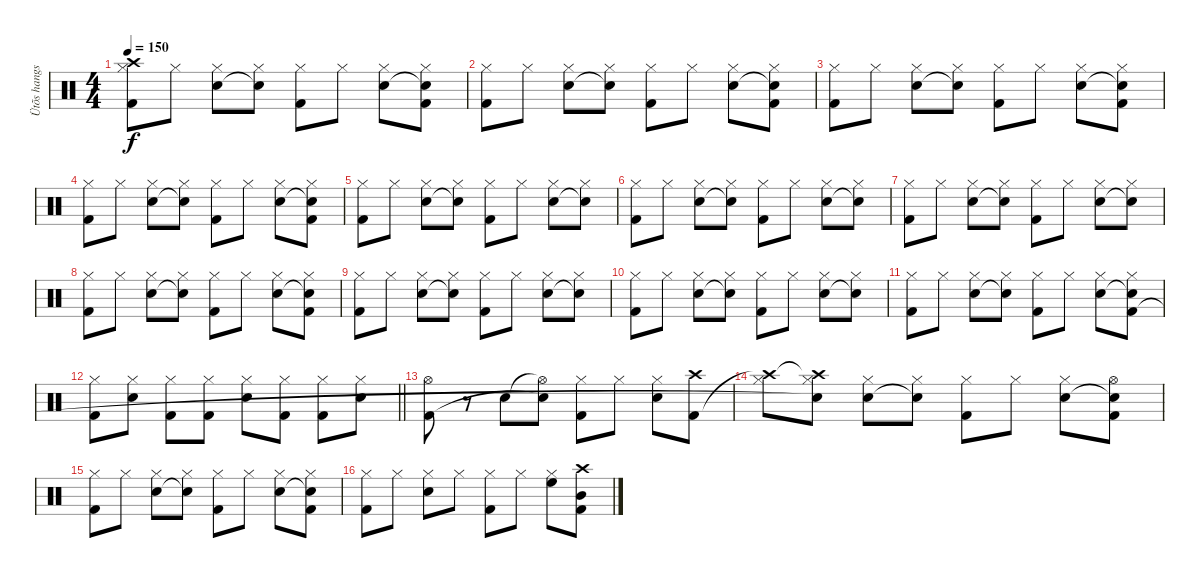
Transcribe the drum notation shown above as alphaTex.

\track ("Ütõs hangszer" "Ütõs hangs") {instrument percussion}
\staff {score}
\articulation defaults
\ts (4 4)
\tempo 150
\clef neutral
\ks c
("Hi-Hat (closed)" "Crash high (hit)"{t} "Kick (hit) 2").8{dy f} "Hi-Hat (closed)".8 ("Hi-Hat (closed)" "Snare (hit) 2").8 ("Hi-Hat (closed)" "Snare (hit) 2"{t}).8 ("Hi-Hat (closed)" "Kick (hit) 2").8 "Hi-Hat (closed)".8 ("Hi-Hat (closed)" "Snare (hit) 2").8 ("Hi-Hat (closed)" "Snare (hit) 2"{t} "Kick (hit) 2").8 |
("Hi-Hat (closed)" "Kick (hit) 2").8 "Hi-Hat (closed)".8 ("Hi-Hat (closed)" "Snare (hit) 2").8 ("Hi-Hat (closed)" "Snare (hit) 2"{t}).8 ("Hi-Hat (closed)" "Kick (hit) 2").8 "Hi-Hat (closed)".8 ("Hi-Hat (closed)" "Snare (hit) 2").8 ("Hi-Hat (closed)" "Snare (hit) 2"{t} "Kick (hit) 2").8 |
("Hi-Hat (closed)" "Kick (hit) 2").8 "Hi-Hat (closed)".8 ("Hi-Hat (closed)" "Snare (hit) 2").8 ("Hi-Hat (closed)" "Snare (hit) 2"{t}).8 ("Hi-Hat (closed)" "Kick (hit) 2").8 "Hi-Hat (closed)".8 ("Hi-Hat (closed)" "Snare (hit) 2").8 ("Hi-Hat (closed)" "Snare (hit) 2"{t} "Kick (hit) 2").8 |
("Hi-Hat (closed)" "Kick (hit) 2").8 "Hi-Hat (closed)".8 ("Hi-Hat (closed)" "Snare (hit) 2").8 ("Hi-Hat (closed)" "Snare (hit) 2"{t}).8 ("Hi-Hat (closed)" "Kick (hit) 2").8 "Hi-Hat (closed)".8 ("Hi-Hat (closed)" "Snare (hit) 2").8 ("Hi-Hat (closed)" "Snare (hit) 2"{t} "Kick (hit) 2").8 |
("Hi-Hat (closed)" "Kick (hit) 2").8 "Hi-Hat (closed)".8 ("Hi-Hat (closed)" "Snare (hit) 2").8 ("Hi-Hat (closed)" "Snare (hit) 2"{t}).8 ("Hi-Hat (closed)" "Kick (hit) 2").8 "Hi-Hat (closed)".8 ("Hi-Hat (closed)" "Snare (hit) 2").8 ("Hi-Hat (closed)" "Snare (hit) 2"{t}).8 |
("Hi-Hat (closed)" "Kick (hit) 2").8 "Hi-Hat (closed)".8 ("Hi-Hat (closed)" "Snare (hit) 2").8 ("Hi-Hat (closed)" "Snare (hit) 2"{t}).8 ("Hi-Hat (closed)" "Kick (hit) 2").8 "Hi-Hat (closed)".8 ("Hi-Hat (closed)" "Snare (hit) 2").8 ("Hi-Hat (closed)" "Snare (hit) 2"{t}).8 |
("Hi-Hat (closed)" "Kick (hit) 2").8 "Hi-Hat (closed)".8 ("Hi-Hat (closed)" "Snare (hit) 2").8 ("Hi-Hat (closed)" "Snare (hit) 2"{t}).8 ("Hi-Hat (closed)" "Kick (hit) 2").8 "Hi-Hat (closed)".8 ("Hi-Hat (closed)" "Snare (hit) 2").8 ("Hi-Hat (closed)" "Snare (hit) 2"{t}).8 |
("Hi-Hat (closed)" "Kick (hit) 2").8 "Hi-Hat (closed)".8 ("Hi-Hat (closed)" "Snare (hit) 2").8 ("Hi-Hat (closed)" "Snare (hit) 2"{t}).8 ("Hi-Hat (closed)" "Kick (hit) 2").8 "Hi-Hat (closed)".8 ("Hi-Hat (closed)" "Snare (hit) 2").8 ("Hi-Hat (closed)" "Snare (hit) 2"{t} "Kick (hit) 2").8 |
("Hi-Hat (closed)" "Kick (hit) 2").8 "Hi-Hat (closed)".8 ("Hi-Hat (closed)" "Snare (hit) 2").8 ("Hi-Hat (closed)" "Snare (hit) 2"{t}).8 ("Hi-Hat (closed)" "Kick (hit) 2").8 "Hi-Hat (closed)".8 ("Hi-Hat (closed)" "Snare (hit) 2").8 ("Hi-Hat (closed)" "Snare (hit) 2"{t}).8 |
("Hi-Hat (closed)" "Kick (hit) 2").8 "Hi-Hat (closed)".8 ("Hi-Hat (closed)" "Snare (hit) 2").8 ("Hi-Hat (closed)" "Snare (hit) 2"{t}).8 ("Hi-Hat (closed)" "Kick (hit) 2").8 "Hi-Hat (closed)".8 ("Hi-Hat (closed)" "Snare (hit) 2").8 ("Hi-Hat (closed)" "Snare (hit) 2"{t}).8 |
("Hi-Hat (closed)" "Kick (hit) 2").8 "Hi-Hat (closed)".8 ("Hi-Hat (closed)" "Snare (hit) 2").8 ("Hi-Hat (closed)" "Snare (hit) 2"{t}).8 ("Hi-Hat (closed)" "Kick (hit) 2").8 "Hi-Hat (closed)".8 ("Hi-Hat (closed)" "Snare (hit) 2").8 ("Hi-Hat (closed)" "Snare (hit) 2"{t} "Kick (hit) 2").8 |
\barLineRight lightlight
("Hi-Hat (closed)" "Kick (hit) 2").8 ("Hi-Hat (closed)" "Snare (hit) 2").8 ("Hi-Hat (closed)" "Kick (hit) 2").8 ("Hi-Hat (closed)" "Kick (hit) 2").8 ("Hi-Hat (closed)" "Snare (hit) 2").8 ("Hi-Hat (closed)" "Kick (hit) 2").8 ("Hi-Hat (closed)" "Kick (hit) 2").8 ("Hi-Hat (closed)" "Snare (hit) 2").8 |
("Hi-Hat (open)" "Kick (hit) 2").8 r.8 "Snare (hit) 2".8 ("Hi-Hat (open)"{t} "Snare (hit) 2"{t}).8 ("Hi-Hat (closed)" "Kick (hit) 2").8 "Hi-Hat (closed)".8 ("Hi-Hat (closed)" "Snare (hit) 2").8 ("Crash high (hit)" "Kick (hit) 2").8 |
("Hi-Hat (closed)" "Crash high (hit)"{t}).8 ("Hi-Hat (closed)" "Crash high (hit)"{t} "Snare (hit) 2"{t}).8 ("Hi-Hat (closed)" "Snare (hit) 2").8 ("Hi-Hat (closed)" "Snare (hit) 2"{t}).8 ("Hi-Hat (closed)" "Kick (hit) 2").8 "Hi-Hat (closed)".8 ("Hi-Hat (closed)" "Snare (hit) 2").8 ("Hi-Hat (open)" "Snare (hit) 2"{t} "Kick (hit) 2").8 |
("Hi-Hat (closed)" "Kick (hit) 2").8 "Hi-Hat (closed)".8 ("Hi-Hat (closed)" "Snare (hit) 2").8 ("Hi-Hat (closed)" "Snare (hit) 2"{t}).8 ("Hi-Hat (closed)" "Kick (hit) 2").8 "Hi-Hat (closed)".8 ("Hi-Hat (closed)" "Snare (hit) 2").8 ("Hi-Hat (closed)" "Snare (hit) 2"{t} "Kick (hit) 2").8 |
("Hi-Hat (closed)" "Kick (hit) 2").8 "Hi-Hat (closed)".8 ("Hi-Hat (closed)" "Snare (hit) 2").8 "Hi-Hat (closed)".8 ("Hi-Hat (closed)" "Kick (hit) 2").8 "Hi-Hat (closed)".8 ("Hi-Hat (closed)" "High Floor Tom (hit)").8 ("Crash high (hit)" "Mid Tom (hit)" "Kick (hit) 2").8
